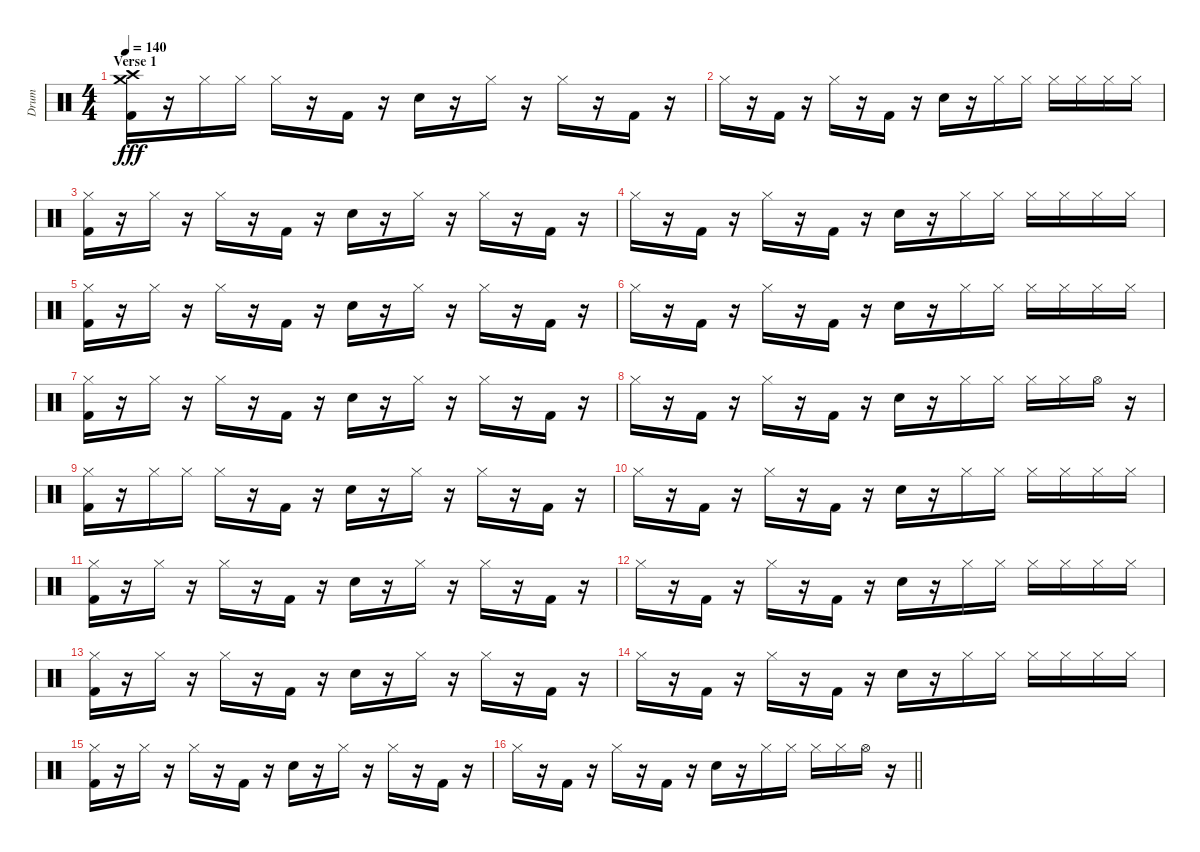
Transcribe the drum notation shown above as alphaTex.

\track ("Drum" "Drum") {instrument percussion}
\staff {score}
\articulation defaults
\ts (4 4)
\section ("" "Verse 1")
\tempo 140
\clef neutral
\ks c
("Crash medium (hit)" "Crash high (hit)" "Kick (hit) 2").16{dy fff} r.16 "Hi-Hat (closed)".16 "Hi-Hat (closed)".16 "Hi-Hat (closed)".16 r.16 "Kick (hit) 2".16 r.16 "Electric Snare (hit)".16 r.16 "Hi-Hat (closed)".16 r.16 "Hi-Hat (closed)".16 r.16 "Kick (hit) 2".16 r.16 |
"Hi-Hat (closed)".16 r.16 "Kick (hit) 2".16 r.16 "Hi-Hat (closed)".16 r.16 "Kick (hit) 2".16 r.16 "Electric Snare (hit)".16 r.16 "Hi-Hat (closed)".16 "Hi-Hat (closed)".16 "Hi-Hat (closed)".16 "Hi-Hat (closed)".16 "Hi-Hat (closed)".16 "Hi-Hat (closed)".16 |
("Hi-Hat (closed)" "Kick (hit) 2").16 r.16 "Hi-Hat (closed)".16 r.16 "Hi-Hat (closed)".16 r.16 "Kick (hit) 2".16 r.16 "Electric Snare (hit)".16 r.16 "Hi-Hat (closed)".16 r.16 "Hi-Hat (closed)".16 r.16 "Kick (hit) 2".16 r.16 |
"Hi-Hat (closed)".16 r.16 "Kick (hit) 2".16 r.16 "Hi-Hat (closed)".16 r.16 "Kick (hit) 2".16 r.16 "Electric Snare (hit)".16 r.16 "Hi-Hat (closed)".16 "Hi-Hat (closed)".16 "Hi-Hat (closed)".16 "Hi-Hat (closed)".16 "Hi-Hat (closed)".16 "Hi-Hat (closed)".16 |
("Hi-Hat (closed)" "Kick (hit) 2").16 r.16 "Hi-Hat (closed)".16 r.16 "Hi-Hat (closed)".16 r.16 "Kick (hit) 2".16 r.16 "Electric Snare (hit)".16 r.16 "Hi-Hat (closed)".16 r.16 "Hi-Hat (closed)".16 r.16 "Kick (hit) 2".16 r.16 |
"Hi-Hat (closed)".16 r.16 "Kick (hit) 2".16 r.16 "Hi-Hat (closed)".16 r.16 "Kick (hit) 2".16 r.16 "Electric Snare (hit)".16 r.16 "Hi-Hat (closed)".16 "Hi-Hat (closed)".16 "Hi-Hat (closed)".16 "Hi-Hat (closed)".16 "Hi-Hat (closed)".16 "Hi-Hat (closed)".16 |
("Hi-Hat (closed)" "Kick (hit) 2").16 r.16 "Hi-Hat (closed)".16 r.16 "Hi-Hat (closed)".16 r.16 "Kick (hit) 2".16 r.16 "Electric Snare (hit)".16 r.16 "Hi-Hat (closed)".16 r.16 "Hi-Hat (closed)".16 r.16 "Kick (hit) 2".16 r.16 |
"Hi-Hat (closed)".16 r.16 "Kick (hit) 2".16 r.16 "Hi-Hat (closed)".16 r.16 "Kick (hit) 2".16 r.16 "Electric Snare (hit)".16 r.16 "Hi-Hat (closed)".16 "Hi-Hat (closed)".16 "Hi-Hat (closed)".16 "Hi-Hat (closed)".16 "Hi-Hat (open)".16 r.16 |
("Hi-Hat (closed)" "Kick (hit) 2").16 r.16 "Hi-Hat (closed)".16 "Hi-Hat (closed)".16 "Hi-Hat (closed)".16 r.16 "Kick (hit) 2".16 r.16 "Electric Snare (hit)".16 r.16 "Hi-Hat (closed)".16 r.16 "Hi-Hat (closed)".16 r.16 "Kick (hit) 2".16 r.16 |
"Hi-Hat (closed)".16 r.16 "Kick (hit) 2".16 r.16 "Hi-Hat (closed)".16 r.16 "Kick (hit) 2".16 r.16 "Electric Snare (hit)".16 r.16 "Hi-Hat (closed)".16 "Hi-Hat (closed)".16 "Hi-Hat (closed)".16 "Hi-Hat (closed)".16 "Hi-Hat (closed)".16 "Hi-Hat (closed)".16 |
("Hi-Hat (closed)" "Kick (hit) 2").16 r.16 "Hi-Hat (closed)".16 r.16 "Hi-Hat (closed)".16 r.16 "Kick (hit) 2".16 r.16 "Electric Snare (hit)".16 r.16 "Hi-Hat (closed)".16 r.16 "Hi-Hat (closed)".16 r.16 "Kick (hit) 2".16 r.16 |
"Hi-Hat (closed)".16 r.16 "Kick (hit) 2".16 r.16 "Hi-Hat (closed)".16 r.16 "Kick (hit) 2".16 r.16 "Electric Snare (hit)".16 r.16 "Hi-Hat (closed)".16 "Hi-Hat (closed)".16 "Hi-Hat (closed)".16 "Hi-Hat (closed)".16 "Hi-Hat (closed)".16 "Hi-Hat (closed)".16 |
("Hi-Hat (closed)" "Kick (hit) 2").16 r.16 "Hi-Hat (closed)".16 r.16 "Hi-Hat (closed)".16 r.16 "Kick (hit) 2".16 r.16 "Electric Snare (hit)".16 r.16 "Hi-Hat (closed)".16 r.16 "Hi-Hat (closed)".16 r.16 "Kick (hit) 2".16 r.16 |
"Hi-Hat (closed)".16 r.16 "Kick (hit) 2".16 r.16 "Hi-Hat (closed)".16 r.16 "Kick (hit) 2".16 r.16 "Electric Snare (hit)".16 r.16 "Hi-Hat (closed)".16 "Hi-Hat (closed)".16 "Hi-Hat (closed)".16 "Hi-Hat (closed)".16 "Hi-Hat (closed)".16 "Hi-Hat (closed)".16 |
("Hi-Hat (closed)" "Kick (hit) 2").16 r.16 "Hi-Hat (closed)".16 r.16 "Hi-Hat (closed)".16 r.16 "Kick (hit) 2".16 r.16 "Electric Snare (hit)".16 r.16 "Hi-Hat (closed)".16 r.16 "Hi-Hat (closed)".16 r.16 "Kick (hit) 2".16 r.16 |
\barLineRight lightlight "Hi-Hat (closed)".16
r.16 "Kick (hit) 2".16 r.16 "Hi-Hat (closed)".16 r.16 "Kick (hit) 2".16 r.16 "Electric Snare (hit)".16 r.16 "Hi-Hat (closed)".16 "Hi-Hat (closed)".16 "Hi-Hat (closed)".16 "Hi-Hat (closed)".16 "Hi-Hat (open)".16 r.16
